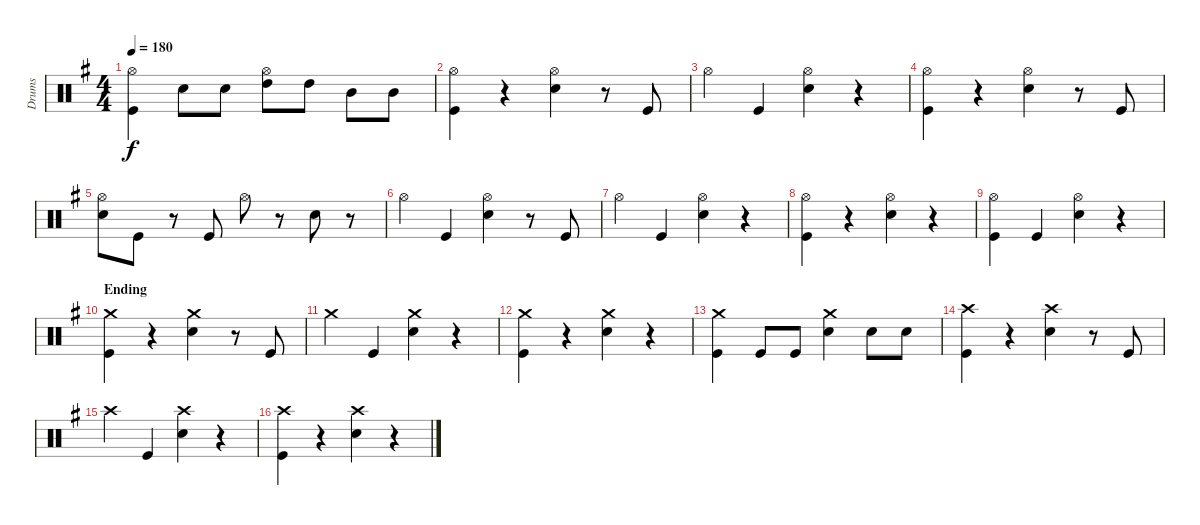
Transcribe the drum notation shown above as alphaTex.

\track ("Drums" "Drums") {instrument percussion}
\staff {score}
\articulation defaults
\ts (4 4)
\tempo 180
\clef neutral
\ks eminor
("Hi-Hat (open)" "Kick (hit)").4{dy f} "Snare (hit) 2".8 "Snare (hit) 2".8 ("High Tom (hit)" "Hi-Hat (open)").8 "High Tom (hit)".8 "Mid Tom (hit)".8 "Mid Tom (hit)".8 |
("Hi-Hat (open)" "Kick (hit)").4 r.4 ("Hi-Hat (open)" "Snare (hit) 2").4 r.8 "Kick (hit)".8 |
"Hi-Hat (open)".4 "Kick (hit)".4 ("Hi-Hat (open)" "Snare (hit) 2").4 r.4 |
("Hi-Hat (open)" "Kick (hit)").4 r.4 ("Hi-Hat (open)" "Snare (hit) 2").4 r.8 "Kick (hit)".8 |
("Hi-Hat (open)" "Snare (hit) 2").8 "Kick (hit)".8 r.8 "Kick (hit)".8 "Hi-Hat (open)".8 r.8 "Snare (hit) 2".8 r.8 |
"Hi-Hat (open)".4 "Kick (hit)".4 ("Hi-Hat (open)" "Snare (hit) 2").4 r.8 "Kick (hit)".8 |
"Hi-Hat (open)".4 "Kick (hit)".4 ("Hi-Hat (open)" "Snare (hit) 2").4 r.4 |
("Hi-Hat (open)" "Kick (hit)").4 r.4 ("Hi-Hat (open)" "Snare (hit) 2").4 r.4 |
("Hi-Hat (open)" "Kick (hit)").4 "Kick (hit)".4 ("Hi-Hat (open)" "Snare (hit) 2").4 r.4 |
\section ("" "Ending")
("Crash medium (hit)" "Kick (hit)").4 r.4 ("Crash medium (hit)" "Snare (hit) 2").4 r.8 "Kick (hit)".8 |
"Crash medium (hit)".4 "Kick (hit)".4 ("Crash medium (hit)" "Snare (hit) 2").4 r.4 |
("Crash medium (hit)" "Kick (hit)").4 r.4 ("Crash medium (hit)" "Snare (hit) 2").4 r.4 |
("Crash medium (hit)" "Kick (hit)").4 "Kick (hit)".8 "Kick (hit)".8 ("Crash medium (hit)" "Snare (hit) 2").4 "Snare (hit) 2".8 "Snare (hit) 2".8 |
("Crash high (hit)" "Kick (hit)").4 r.4 ("Crash high (hit)" "Snare (hit) 2").4 r.8 "Kick (hit)".8 |
"Crash high (hit)".4 "Kick (hit)".4 ("Crash high (hit)" "Snare (hit) 2").4 r.4 |
("Crash high (hit)" "Kick (hit)").4 r.4 ("Crash high (hit)" "Snare (hit) 2").4 r.4
